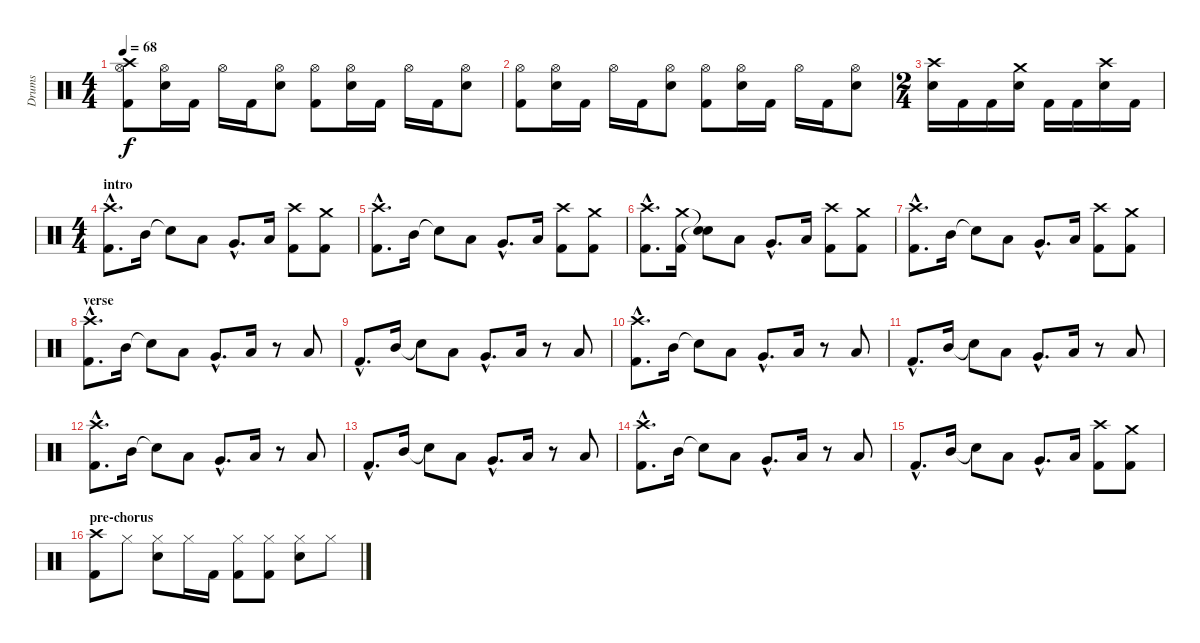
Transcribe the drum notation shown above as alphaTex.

\track ("Drums" "Drums") {instrument percussion}
\staff {score}
\articulation defaults
\ts (4 4)
\tempo 68
\clef neutral
\ks c
("Crash high (hit)" "Hi-Hat (open)" "Kick (hit) 2").8{dy f} ("Hi-Hat (open)" "Snare (hit) 2").16 "Kick (hit) 2".16 "Hi-Hat (open)".16 "Kick (hit) 2".16 ("Hi-Hat (open)" "Snare (hit) 2").8 ("Hi-Hat (open)" "Kick (hit) 2").8 ("Hi-Hat (open)" "Snare (hit) 2").16 "Kick (hit) 2".16 "Hi-Hat (open)".16 "Kick (hit) 2".16 ("Hi-Hat (open)" "Snare (hit) 2").8 |
("Hi-Hat (open)" "Kick (hit) 2").8 ("Hi-Hat (open)" "Snare (hit) 2").16 "Kick (hit) 2".16 "Hi-Hat (open)".16 "Kick (hit) 2".16 ("Hi-Hat (open)" "Snare (hit) 2").8 ("Hi-Hat (open)" "Kick (hit) 2").8 ("Hi-Hat (open)" "Snare (hit) 2").16 "Kick (hit) 2".16 "Hi-Hat (open)".16 "Kick (hit) 2".16 ("Hi-Hat (open)" "Snare (hit) 2").8 |
\ts (2 4)
("Crash high (hit)" "Snare (hit) 2").16 "Kick (hit) 2".16 "Kick (hit) 2".16 ("Crash medium (hit)" "Snare (hit) 2").16 "Kick (hit) 2".16 "Kick (hit) 2".16 ("Crash high (hit)" "Snare (hit) 2").16 "Kick (hit) 2".16 |
\ts (4 4)
\section ("" "intro")
("Crash high (hit)"{hac} "Kick (hit) 2"{hac}).8{d} "Mid Tom (hit)".16 "Snare (hit)"{t}.8 "Low Tom (hit)".8 "Very Low Tom (hit)"{hac}.8{d} "Low Floor Tom (hit)".16 ("Crash high (hit)" "Kick (hit) 2").8 ("Crash medium (hit)" "Kick (hit) 2").8 |
("Crash high (hit)"{hac} "Kick (hit) 2"{hac}).8{d} "Mid Tom (hit)".16 "Snare (hit)"{t}.8 "Low Tom (hit)".8 "Very Low Tom (hit)"{hac}.8{d} "Low Floor Tom (hit)".16 ("Crash high (hit)" "Kick (hit) 2").8 ("Crash medium (hit)" "Kick (hit) 2").8 |
("Crash high (hit)"{hac} "Kick (hit) 2"{hac}).8{d} ("Crash medium (hit)" "Kick (hit) 2").16 ("Snare (hit)"{t} "Snare (hit)"{t}).8 "Low Tom (hit)".8 "Very Low Tom (hit)"{hac}.8{d} "Low Floor Tom (hit)".16 ("Crash high (hit)" "Kick (hit) 2").8 ("Crash medium (hit)" "Kick (hit) 2").8 |
("Crash high (hit)"{hac} "Kick (hit) 2"{hac}).8{d} "Mid Tom (hit)".16 "Snare (hit)"{t}.8 "Low Tom (hit)".8 "Very Low Tom (hit)"{hac}.8{d} "Low Floor Tom (hit)".16 ("Crash high (hit)" "Kick (hit) 2").8 ("Crash medium (hit)" "Kick (hit) 2").8 |
\section ("" "verse")
("Crash high (hit)"{hac} "Kick (hit) 2"{hac}).8{d} "Mid Tom (hit)".16 "Snare (hit)"{t}.8 "Low Tom (hit)".8 "Very Low Tom (hit)"{hac}.8{d} "Low Floor Tom (hit)".16 r.8 "Low Floor Tom (hit)".8 |
"Kick (hit) 2"{hac}.8{d} "Mid Tom (hit)".16 "Snare (hit)"{t}.8 "Low Tom (hit)".8 "Very Low Tom (hit)"{hac}.8{d} "Low Floor Tom (hit)".16 r.8 "Low Floor Tom (hit)".8 |
("Crash high (hit)"{hac} "Kick (hit) 2"{hac}).8{d} "Mid Tom (hit)".16 "Snare (hit)"{t}.8 "Low Tom (hit)".8 "Very Low Tom (hit)"{hac}.8{d} "Low Floor Tom (hit)".16 r.8 "Low Floor Tom (hit)".8 |
"Kick (hit) 2"{hac}.8{d} "Mid Tom (hit)".16 "Snare (hit)"{t}.8 "Low Tom (hit)".8 "Very Low Tom (hit)"{hac}.8{d} "Low Floor Tom (hit)".16 r.8 "Low Floor Tom (hit)".8 |
("Crash high (hit)"{hac} "Kick (hit) 2"{hac}).8{d} "Mid Tom (hit)".16 "Snare (hit)"{t}.8 "Low Tom (hit)".8 "Very Low Tom (hit)"{hac}.8{d} "Low Floor Tom (hit)".16 r.8 "Low Floor Tom (hit)".8 |
"Kick (hit) 2"{hac}.8{d} "Mid Tom (hit)".16 "Snare (hit)"{t}.8 "Low Tom (hit)".8 "Very Low Tom (hit)"{hac}.8{d} "Low Floor Tom (hit)".16 r.8 "Low Floor Tom (hit)".8 |
("Crash high (hit)"{hac} "Kick (hit) 2"{hac}).8{d} "Mid Tom (hit)".16 "Snare (hit)"{t}.8 "Low Tom (hit)".8 "Very Low Tom (hit)"{hac}.8{d} "Low Floor Tom (hit)".16 r.8 "Low Floor Tom (hit)".8 |
"Kick (hit) 2"{hac}.8{d} "Mid Tom (hit)".16 "Snare (hit)"{t}.8 "Low Tom (hit)".8 "Very Low Tom (hit)"{hac}.8{d} "Low Floor Tom (hit)".16 ("Crash high (hit)" "Kick (hit) 2").8 ("Crash medium (hit)" "Kick (hit) 2").8 |
\section ("" "pre-chorus")
("Crash high (hit)" "Kick (hit) 2").8 "Hi-Hat (closed)".8 ("Hi-Hat (closed)" "Snare (hit) 2").8 "Hi-Hat (closed)".16 "Kick (hit) 2".16 ("Hi-Hat (closed)" "Kick (hit) 2").8 ("Hi-Hat (closed)" "Kick (hit) 2").8 ("Hi-Hat (closed)" "Snare (hit) 2").8 "Hi-Hat (closed)".8
